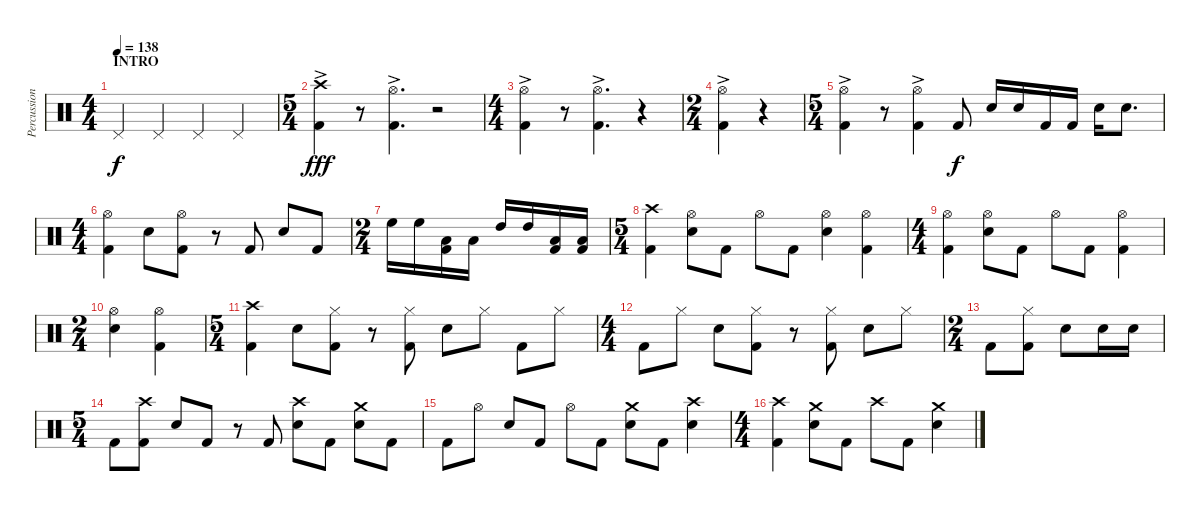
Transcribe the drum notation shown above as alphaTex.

\track ("Percussion" "Percussion") {instrument percussion}
\staff {score}
\articulation defaults
\ts (4 4)
\section ("" "INTRO")
\tempo 138
\clef neutral
\ks c "Pedal Hi-Hat (hit)".4{dy f} "Pedal Hi-Hat (hit)".4 "Pedal Hi-Hat (hit)".4 "Pedal Hi-Hat (hit)".4
|
\ts (5 4)
("Kick (hit) 2" "Crash high (hit)"{ac}).4{dy fff} r.8 ("Kick (hit) 2" "Hi-Hat (open)"{ac}).4{d} r.2 |
\ts (4 4)
("Kick (hit) 2" "Hi-Hat (open)"{ac}).4 r.8 ("Kick (hit) 2" "Hi-Hat (open)"{ac}).4{d} r.4 |
\ts (2 4)
("Kick (hit) 2" "Hi-Hat (open)"{ac}).4 r.4 |
\ts (5 4)
("Kick (hit) 2" "Hi-Hat (open)"{ac}).4 r.8 ("Kick (hit) 2" "Hi-Hat (open)"{ac}).4 "Kick (hit) 2".8{dy f} "Electric Snare (hit)".16 "Electric Snare (hit)".16 "Kick (hit) 2".16 "Kick (hit) 2".16 "Electric Snare (hit)".16 "Electric Snare (hit)".8{d} |
\ts (4 4)
("Kick (hit) 2" "Hi-Hat (open)").4 "Electric Snare (hit)".8 ("Kick (hit) 2" "Hi-Hat (open)").8 r.8 "Kick (hit) 2".8 "Electric Snare (hit)".8 "Kick (hit) 2".8 |
\ts (2 4)
"High Floor Tom (hit)".16 "High Floor Tom (hit)".16 ("Kick (hit) 2" "Low Tom (hit)").16 "Low Tom (hit)".16 "High Tom (hit)".16 "High Tom (hit)".16 ("Kick (hit) 2" "Low Floor Tom (hit)").16 ("Kick (hit) 2" "Low Floor Tom (hit)").16 |
\ts (5 4)
("Kick (hit) 2" "Crash high (hit)").4 ("Electric Snare (hit)" "Hi-Hat (open)").8 "Kick (hit) 2".8 "Hi-Hat (open)".8 "Kick (hit) 2".8 ("Electric Snare (hit)" "Hi-Hat (open)").4 ("Kick (hit) 2" "Hi-Hat (open)").4 |
\ts (4 4)
("Kick (hit) 2" "Hi-Hat (open)").4 ("Electric Snare (hit)" "Hi-Hat (open)").8 "Kick (hit) 2".8 "Hi-Hat (open)".8 "Kick (hit) 2".8 ("Kick (hit) 2" "Hi-Hat (open)").4 |
\ts (2 4)
("Electric Snare (hit)" "Hi-Hat (open)").4 ("Kick (hit) 2" "Hi-Hat (open)").4 |
\ts (5 4)
("Kick (hit) 2" "Crash high (hit)").4 "Electric Snare (hit)".8 ("Kick (hit) 2" "Hi-Hat (closed)").8 r.8 ("Kick (hit) 2" "Hi-Hat (closed)").8 "Electric Snare (hit)".8 "Hi-Hat (closed)".8 "Kick (hit) 2".8 "Hi-Hat (closed)".8 |
\ts (4 4)
"Kick (hit) 2".8 "Hi-Hat (closed)".8 "Electric Snare (hit)".8 ("Kick (hit) 2" "Hi-Hat (closed)").8 r.8 ("Kick (hit) 2" "Hi-Hat (closed)").8 "Electric Snare (hit)".8 "Hi-Hat (closed)".8 |
\ts (2 4)
"Kick (hit) 2".8 ("Kick (hit) 2" "Hi-Hat (closed)").8 "Electric Snare (hit)".8 "Electric Snare (hit)".16 "Electric Snare (hit)".16 |
\ts (5 4)
"Kick (hit) 2".8 ("Kick (hit) 2" "Crash high (hit)").8 "Electric Snare (hit)".8 "Kick (hit) 2".8 r.8 "Kick (hit) 2".8 ("Electric Snare (hit)" "Crash high (hit)").8 "Kick (hit) 2".8 ("Electric Snare (hit)" "Crash medium (hit)").8 "Kick (hit) 2".8 |
"Kick (hit) 2".8 "Hi-Hat (open)".8 "Electric Snare (hit)".8 "Kick (hit) 2".8 "Hi-Hat (open)".8 "Kick (hit) 2".8 ("Electric Snare (hit)" "Crash medium (hit)").8 "Kick (hit) 2".8 ("Electric Snare (hit)" "Crash high (hit)").4 |
\ts (4 4)
("Kick (hit) 2" "Crash high (hit)").4 ("Electric Snare (hit)" "Crash medium (hit)").8 "Kick (hit) 2".8 "Crash high (hit)".8 "Kick (hit) 2".8 ("Electric Snare (hit)" "Crash medium (hit)").4
